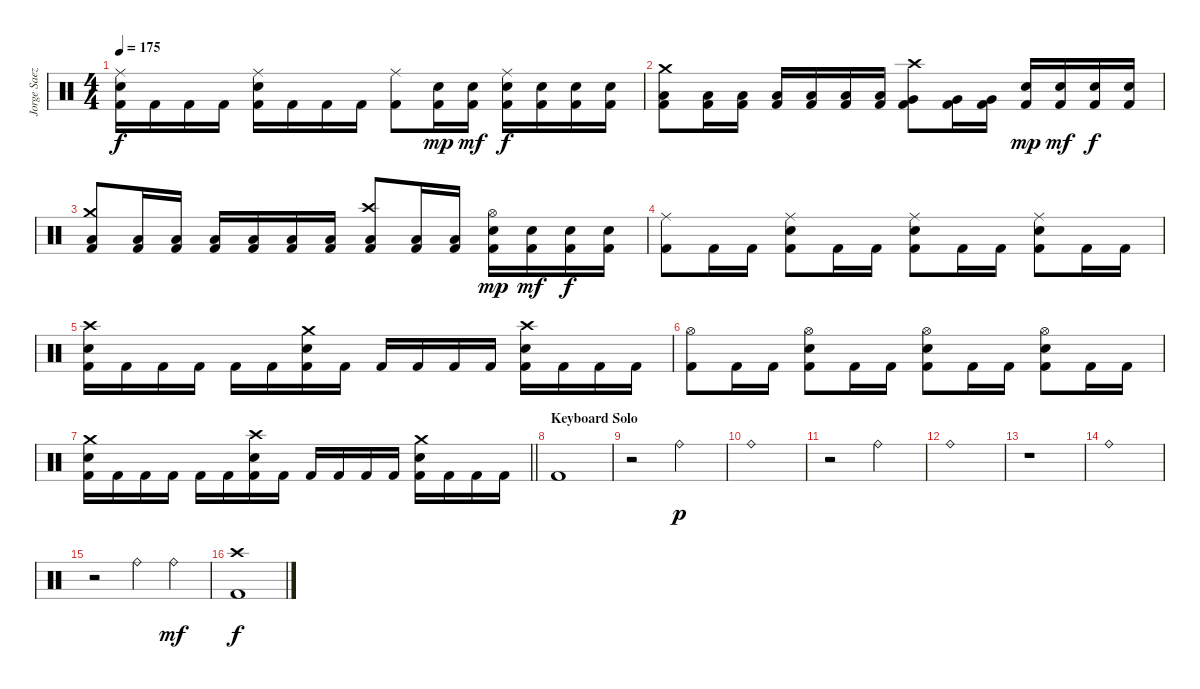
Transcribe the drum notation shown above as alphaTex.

\track ("Jorge Saez, Drums" "Jorge Saez") {instrument percussion}
\staff
\articulation defaults
\ts (4 4)
\tempo 175
\clef neutral
\ks c
("Kick (hit) 2" "Electric Snare (hit)" "Ride (middle)").16{dy f} "Kick (hit) 2".16 "Kick (hit) 2".16 "Kick (hit) 2".16 ("Kick (hit) 2" "Electric Snare (hit)" "Ride (middle)").16 "Kick (hit) 2".16 "Kick (hit) 2".16 "Kick (hit) 2".16 ("Kick (hit) 2" "Ride (middle)").8 ("Kick (hit) 2" "Electric Snare (hit)").16{dy mp} ("Kick (hit) 2" "Electric Snare (hit)").16{dy mf} ("Kick (hit) 2" "Electric Snare (hit)" "Ride (middle)").16{dy f} ("Kick (hit) 2" "Electric Snare (hit)").16 ("Kick (hit) 2" "Electric Snare (hit)").16 ("Kick (hit) 2" "Electric Snare (hit)").16 |
("Kick (hit) 2" "Low Tom (hit)" "Crash medium (hit)").8 ("Kick (hit) 2" "Low Tom (hit)").16 ("Kick (hit) 2" "Low Tom (hit)").16 ("Kick (hit) 2" "Low Tom (hit)").16 ("Kick (hit) 2" "Low Tom (hit)").16 ("Kick (hit) 2" "Low Tom (hit)").16 ("Kick (hit) 2" "Low Tom (hit)").16 ("Kick (hit) 2" "Very Low Tom (hit)" "Crash high (hit)").8 ("Kick (hit) 2" "Very Low Tom (hit)").16 ("Kick (hit) 2" "Very Low Tom (hit)").16 ("Kick (hit) 2" "Electric Snare (hit)").16{dy mp} ("Kick (hit) 2" "Electric Snare (hit)").16{dy mf} ("Kick (hit) 2" "Electric Snare (hit)").16{dy f} ("Kick (hit) 2" "Electric Snare (hit)").16 |
("Kick (hit) 2" "Low Floor Tom (hit)" "Crash medium (hit)").8 ("Kick (hit) 2" "Low Floor Tom (hit)").16 ("Kick (hit) 2" "Low Floor Tom (hit)").16 ("Kick (hit) 2" "Low Floor Tom (hit)").16 ("Kick (hit) 2" "Low Floor Tom (hit)").16 ("Kick (hit) 2" "Low Floor Tom (hit)").16 ("Kick (hit) 2" "Low Floor Tom (hit)").16 ("Kick (hit) 2" "Low Floor Tom (hit)" "Crash high (hit)").8 ("Kick (hit) 2" "Low Floor Tom (hit)").16 ("Kick (hit) 2" "Low Floor Tom (hit)").16 ("Kick (hit) 2" "Electric Snare (hit)" "Hi-Hat (open)").16{dy mp} ("Kick (hit) 2" "Electric Snare (hit)").16{dy mf} ("Kick (hit) 2" "Electric Snare (hit)").16{dy f} ("Kick (hit) 2" "Electric Snare (hit)").16 |
("Kick (hit) 2" "Ride (middle)").8 "Kick (hit) 2".16 "Kick (hit) 2".16 ("Kick (hit) 2" "Electric Snare (hit)" "Ride (middle)").8 "Kick (hit) 2".16 "Kick (hit) 2".16 ("Kick (hit) 2" "Electric Snare (hit)" "Ride (middle)").8 "Kick (hit) 2".16 "Kick (hit) 2".16 ("Kick (hit) 2" "Electric Snare (hit)" "Ride (middle)").8 "Kick (hit) 2".16 "Kick (hit) 2".16 |
("Kick (hit) 2" "Electric Snare (hit)" "Crash high (hit)").16 "Kick (hit) 2".16 "Kick (hit) 2".16 "Kick (hit) 2".16 "Kick (hit) 2".16 "Kick (hit) 2".16 ("Kick (hit) 2" "Electric Snare (hit)" "Crash medium (hit)").16 "Kick (hit) 2".16 "Kick (hit) 2".16 "Kick (hit) 2".16 "Kick (hit) 2".16 "Kick (hit) 2".16 ("Kick (hit) 2" "Electric Snare (hit)" "Crash high (hit)").16 "Kick (hit) 2".16 "Kick (hit) 2".16 "Kick (hit) 2".16 |
("Kick (hit) 2" "Hi-Hat (open)").8 "Kick (hit) 2".16 "Kick (hit) 2".16 ("Kick (hit) 2" "Electric Snare (hit)" "Hi-Hat (open)").8 "Kick (hit) 2".16 "Kick (hit) 2".16 ("Kick (hit) 2" "Electric Snare (hit)" "Hi-Hat (open)").8 "Kick (hit) 2".16 "Kick (hit) 2".16 ("Kick (hit) 2" "Electric Snare (hit)" "Hi-Hat (open)").8 "Kick (hit) 2".16 "Kick (hit) 2".16 |
\barLineRight lightlight
("Kick (hit) 2" "Electric Snare (hit)" "Crash medium (hit)").16 "Kick (hit) 2".16 "Kick (hit) 2".16 "Kick (hit) 2".16 "Kick (hit) 2".16 "Kick (hit) 2".16 ("Kick (hit) 2" "Electric Snare (hit)" "Crash high (hit)").16 "Kick (hit) 2".16 "Kick (hit) 2".16 "Kick (hit) 2".16 "Kick (hit) 2".16 "Kick (hit) 2".16 ("Kick (hit) 2" "Electric Snare (hit)" "Crash medium (hit)").16 "Kick (hit) 2".16 "Kick (hit) 2".16 "Kick (hit) 2".16 |
\section ("" "Keyboard Solo")
"Kick (hit) 2".1 |
r.2 "Ride (bell)".2{dy p} |
"Ride (bell)".1 |
r.2 "Ride (bell)".2 |
"Ride (bell)".1 |
r.1 |
"Ride (bell)".1 |
r.2 "Ride (bell)".4 "Ride (bell)".4{dy mf} |
("Kick (hit) 2" "Crash high (hit)").1{dy f}
